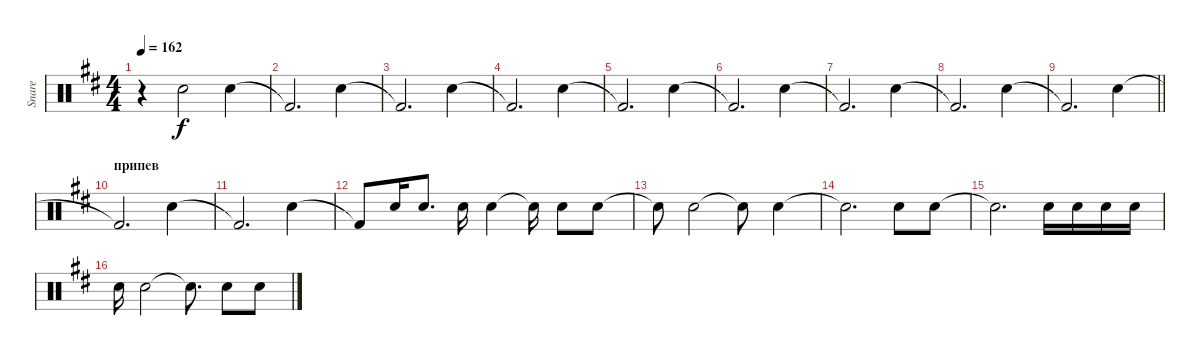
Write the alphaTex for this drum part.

\track ("Snare" "Snare") {instrument percussion}
\staff {score}
\articulation defaults
\ts (4 4)
\tempo 162
\clef neutral
\ks bminor
r.4{dy mp} "Electric Snare (hit)".2{dy f} "Electric Snare (hit)".4 |
"Kick (hit) 2"{t}.2{d} "Electric Snare (hit)".4 |
"Kick (hit) 2"{t}.2{d} "Electric Snare (hit)".4 |
"Kick (hit) 2"{t}.2{d} "Electric Snare (hit)".4 |
"Kick (hit) 2"{t}.2{d} "Electric Snare (hit)".4 |
"Kick (hit) 2"{t}.2{d} "Electric Snare (hit)".4 |
"Kick (hit) 2"{t}.2{d} "Electric Snare (hit)".4 |
"Kick (hit) 2"{t}.2{d} "Electric Snare (hit)".4 |
\barLineRight lightlight "Kick (hit) 2"{t}.2{d} "Electric Snare (hit)".4
|
\section ("" "припев")
"Kick (hit) 2"{t}.2{d} "Electric Snare (hit)".4 |
"Kick (hit) 2"{t}.2{d} "Electric Snare (hit)".4 |
"Kick (hit) 2"{t}.8 "Electric Snare (hit)".16 "Electric Snare (hit)".8{d} "Electric Snare (hit)".16 "Electric Snare (hit)".4 "Electric Snare (hit)"{t}.16 "Electric Snare (hit)".8 "Electric Snare (hit)".8 |
"Electric Snare (hit)"{t}.8 "Electric Snare (hit)".2 "Electric Snare (hit)"{t}.8 "Electric Snare (hit)".4 |
"Electric Snare (hit)"{t}.2{d} "Electric Snare (hit)".8 "Electric Snare (hit)".8 |
"Electric Snare (hit)"{t}.2{d} "Electric Snare (hit)".16 "Electric Snare (hit)".16 "Electric Snare (hit)".16 "Electric Snare (hit)".16 |
"Electric Snare (hit)".16 "Electric Snare (hit)".2 "Electric Snare (hit)"{t}.8{d} "Electric Snare (hit)".8 "Electric Snare (hit)".8
